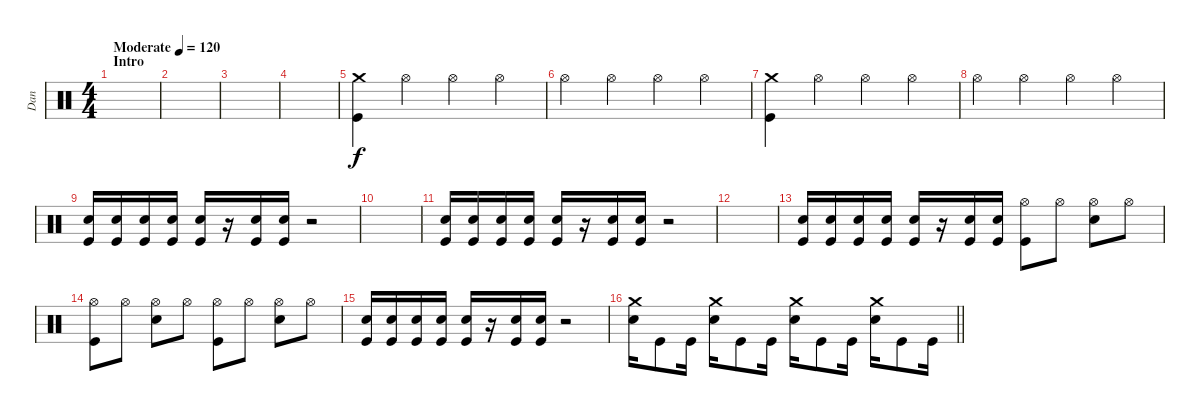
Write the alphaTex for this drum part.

\track ("Dan" "Dan") {instrument percussion}
\staff {score}
\articulation defaults
\ts (4 4)
\section ("" "Intro")
\tempo (120 "Moderate")
\clef neutral
\ks c
|
|
|
|
("Crash medium (hit)" "Kick (hit)").4 "Hi-Hat (open)".4 "Hi-Hat (open)".4 "Hi-Hat (open)".4 |
"Hi-Hat (open)".4 "Hi-Hat (open)".4 "Hi-Hat (open)".4 "Hi-Hat (open)".4 |
("Crash medium (hit)" "Kick (hit)").4 "Hi-Hat (open)".4 "Hi-Hat (open)".4 "Hi-Hat (open)".4 |
"Hi-Hat (open)".4 "Hi-Hat (open)".4 "Hi-Hat (open)".4 "Hi-Hat (open)".4 |
("Snare (hit) 2" "Kick (hit)").16 ("Snare (hit) 2" "Kick (hit)").16 ("Snare (hit) 2" "Kick (hit)").16 ("Snare (hit) 2" "Kick (hit)").16 ("Snare (hit) 2" "Kick (hit)").16 r.16 ("Snare (hit) 2" "Kick (hit)").16 ("Snare (hit) 2" "Kick (hit)").16 r.2 |
|
("Snare (hit) 2" "Kick (hit)").16 ("Snare (hit) 2" "Kick (hit)").16 ("Snare (hit) 2" "Kick (hit)").16 ("Snare (hit) 2" "Kick (hit)").16 ("Snare (hit) 2" "Kick (hit)").16 r.16 ("Snare (hit) 2" "Kick (hit)").16 ("Snare (hit) 2" "Kick (hit)").16 r.2 |
|
("Snare (hit) 2" "Kick (hit)").16 ("Snare (hit) 2" "Kick (hit)").16 ("Snare (hit) 2" "Kick (hit)").16 ("Snare (hit) 2" "Kick (hit)").16 ("Snare (hit) 2" "Kick (hit)").16 r.16 ("Snare (hit) 2" "Kick (hit)").16 ("Snare (hit) 2" "Kick (hit)").16 ("Hi-Hat (open)" "Kick (hit)").8 "Hi-Hat (open)".8 ("Hi-Hat (open)" "Snare (hit) 2").8 "Hi-Hat (open)".8 |
("Hi-Hat (open)" "Kick (hit)").8 "Hi-Hat (open)".8 ("Hi-Hat (open)" "Snare (hit) 2").8 "Hi-Hat (open)".8 ("Hi-Hat (open)" "Kick (hit)").8 "Hi-Hat (open)".8 ("Hi-Hat (open)" "Snare (hit) 2").8 "Hi-Hat (open)".8 |
("Snare (hit) 2" "Kick (hit)").16 ("Snare (hit) 2" "Kick (hit)").16 ("Snare (hit) 2" "Kick (hit)").16 ("Snare (hit) 2" "Kick (hit)").16 ("Snare (hit) 2" "Kick (hit)").16 r.16 ("Snare (hit) 2" "Kick (hit)").16 ("Snare (hit) 2" "Kick (hit)").16 r.2 |
\barLineRight lightlight
("Crash medium (hit)" "Snare (hit) 2").16 "Kick (hit)".8 "Kick (hit)".16 ("Crash medium (hit)" "Snare (hit) 2").16 "Kick (hit)".8 "Kick (hit)".16 ("Crash medium (hit)" "Snare (hit) 2").16 "Kick (hit)".8 "Kick (hit)".16 ("Crash medium (hit)" "Snare (hit) 2").16 "Kick (hit)".8 "Kick (hit)".16
